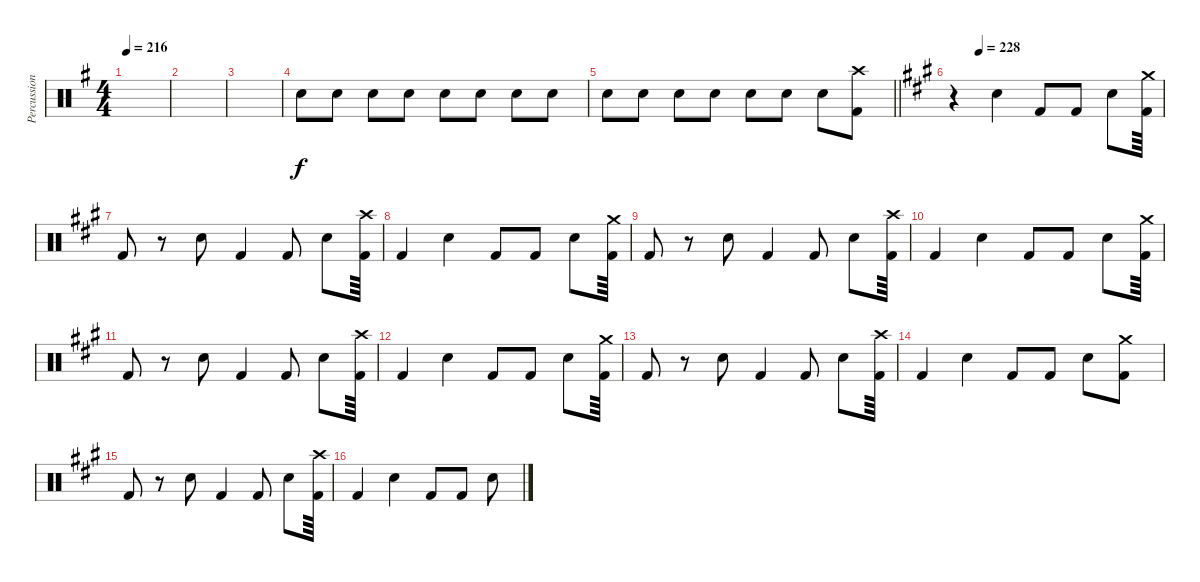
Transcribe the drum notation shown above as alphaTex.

\track ("Percussion" "Percussion") {instrument percussion}
\staff {score}
\articulation defaults
\ts (4 4)
\tempo 216
\clef neutral
\ks g
|
|
|
"Snare (hit) 2".8 "Snare (hit) 2".8 "Snare (hit) 2".8 "Snare (hit) 2".8 "Snare (hit) 2".8 "Snare (hit) 2".8 "Snare (hit) 2".8 "Snare (hit) 2".8 |
\barLineRight lightlight "Snare (hit) 2".8 "Snare (hit) 2".8 "Snare (hit) 2".8 "Snare (hit) 2".8 "Snare (hit) 2".8 "Snare (hit) 2".8 "Snare (hit) 2".8
("Crash high (hit)" "Kick (hit) 2").8 |
\tempo (228 0.125)
\ks a
r.4 "Snare (hit) 2".4 "Kick (hit) 2".8 "Kick (hit) 2".8 "Snare (hit) 2".8 ("Crash medium (hit)" "Kick (hit) 2").64 |
"Kick (hit) 2".8 r.8 "Snare (hit) 2".8 "Kick (hit) 2".4 "Kick (hit) 2".8 "Snare (hit) 2".8 ("Crash high (hit)" "Kick (hit) 2").64 |
"Kick (hit) 2".4 "Snare (hit) 2".4 "Kick (hit) 2".8 "Kick (hit) 2".8 "Snare (hit) 2".8 ("Crash medium (hit)" "Kick (hit) 2").64 |
"Kick (hit) 2".8 r.8 "Snare (hit) 2".8 "Kick (hit) 2".4 "Kick (hit) 2".8 "Snare (hit) 2".8 ("Crash high (hit)" "Kick (hit) 2").64 |
"Kick (hit) 2".4 "Snare (hit) 2".4 "Kick (hit) 2".8 "Kick (hit) 2".8 "Snare (hit) 2".8 ("Crash medium (hit)" "Kick (hit) 2").64 |
"Kick (hit) 2".8 r.8 "Snare (hit) 2".8 "Kick (hit) 2".4 "Kick (hit) 2".8 "Snare (hit) 2".8 ("Crash high (hit)" "Kick (hit) 2").64 |
"Kick (hit) 2".4 "Snare (hit) 2".4 "Kick (hit) 2".8 "Kick (hit) 2".8 "Snare (hit) 2".8 ("Crash medium (hit)" "Kick (hit) 2").64 |
"Kick (hit) 2".8 r.8 "Snare (hit) 2".8 "Kick (hit) 2".4 "Kick (hit) 2".8 "Snare (hit) 2".8 ("Crash high (hit)" "Kick (hit) 2").64 |
"Kick (hit) 2".4 "Snare (hit) 2".4 "Kick (hit) 2".8 "Kick (hit) 2".8 "Snare (hit) 2".8 ("Crash medium (hit)" "Kick (hit) 2").8 |
"Kick (hit) 2".8 r.8 "Snare (hit) 2".8 "Kick (hit) 2".4 "Kick (hit) 2".8 "Snare (hit) 2".8 ("Crash high (hit)" "Kick (hit) 2").64 |
"Kick (hit) 2".4 "Snare (hit) 2".4 "Kick (hit) 2".8 "Kick (hit) 2".8 "Snare (hit) 2".8
